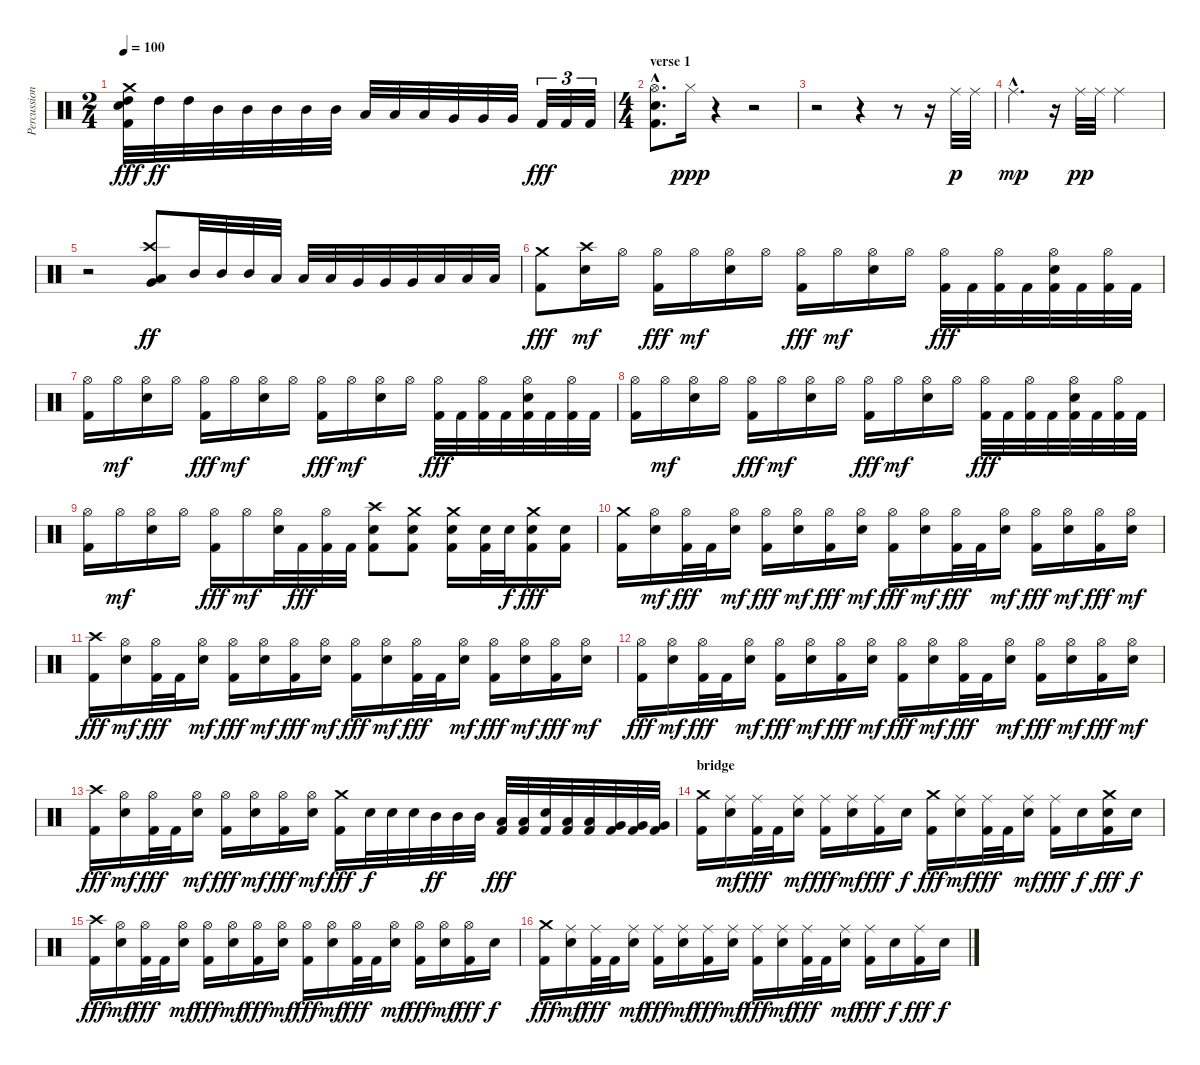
\track ("Percussion" "Percussion") {instrument percussion}
\staff {score}
\articulation defaults
\ts (2 4)
\section ("" "")
\tempo 100
\clef neutral
\ks c
("Crash medium (hit)" "High Tom (hit)" "Snare (hit) 2" "Kick (hit) 2").32{dy fff} "High Tom (hit)".32{dy ff} "High Tom (hit)".32 "Mid Tom (hit)".32 "Mid Tom (hit)".32 "Mid Tom (hit)".32 "Mid Tom (hit)".32 "Mid Tom (hit)".32 "Low Tom (hit)".32 "Low Tom (hit)".32 "Low Tom (hit)".32 "Very Low Tom (hit)".32 "Very Low Tom (hit)".32 "Very Low Tom (hit)".32 "Kick (hit) 2".32{tu (3 2) dy fff} "Kick (hit) 2".32{tu (3 2)} "Kick (hit) 2".32{tu (3 2)} |
\ts (4 4)
\section ("" "verse 1")
("Hi-Hat (open)"{hac} "Snare (hit) 2"{hac} "Kick (hit) 2"{hac}).8{d} "Hi-Hat (closed)".16{dy ppp} r.4 r.2 |
r.2 r.4 r.8 r.16 "Ride (middle)".32{dy p} "Ride (middle)".32 |
"Ride (middle)"{hac}.4{d dy mp} r.16 "Ride (middle)".32{dy pp} "Ride (middle)".32 "Ride (middle)".2 |
r.2 ("Crash high (hit)" "Very Low Tom (hit)" "Low Floor Tom (hit)").8{dy ff} "Mid Tom (hit)".32 "Mid Tom (hit)".32 "Mid Tom (hit)".32 "Low Tom (hit)".32 "Low Tom (hit)".32 "Low Tom (hit)".32 "Very Low Tom (hit)".32 "Very Low Tom (hit)".32 "Very Low Tom (hit)".32 "Low Floor Tom (hit)".32 "Low Floor Tom (hit)".32 "Low Floor Tom (hit)".32 |
\section ("" "")
("Crash medium (hit)" "Kick (hit) 2").8{dy fff} ("Crash high (hit)" "Snare (hit) 2").16{dy mf} "Hi-Hat (open)".16 ("Hi-Hat (open)" "Kick (hit) 2").16{dy fff} "Hi-Hat (open)".16{dy mf} ("Hi-Hat (open)" "Snare (hit) 2").16 "Hi-Hat (open)".16 ("Hi-Hat (open)" "Kick (hit) 2").16{dy fff} "Hi-Hat (open)".16{dy mf} ("Hi-Hat (open)" "Snare (hit) 2").16 "Hi-Hat (open)".16 ("Hi-Hat (open)" "Kick (hit) 2").32{dy fff} "Kick (hit) 2".32 ("Hi-Hat (open)" "Kick (hit) 2").32 "Kick (hit) 2".32 ("Hi-Hat (open)" "Snare (hit) 2" "Kick (hit) 2").32 "Kick (hit) 2".32 ("Hi-Hat (open)" "Kick (hit) 2").32 "Kick (hit) 2".32 |
("Hi-Hat (open)" "Kick (hit) 2").16 "Hi-Hat (open)".16{dy mf} ("Hi-Hat (open)" "Snare (hit) 2").16 "Hi-Hat (open)".16 ("Hi-Hat (open)" "Kick (hit) 2").16{dy fff} "Hi-Hat (open)".16{dy mf} ("Hi-Hat (open)" "Snare (hit) 2").16 "Hi-Hat (open)".16 ("Hi-Hat (open)" "Kick (hit) 2").16{dy fff} "Hi-Hat (open)".16{dy mf} ("Hi-Hat (open)" "Snare (hit) 2").16 "Hi-Hat (open)".16 ("Hi-Hat (open)" "Kick (hit) 2").32{dy fff} "Kick (hit) 2".32 ("Hi-Hat (open)" "Kick (hit) 2").32 "Kick (hit) 2".32 ("Hi-Hat (open)" "Snare (hit) 2" "Kick (hit) 2").32 "Kick (hit) 2".32 ("Hi-Hat (open)" "Kick (hit) 2").32 "Kick (hit) 2".32 |
("Hi-Hat (open)" "Kick (hit) 2").16 "Hi-Hat (open)".16{dy mf} ("Hi-Hat (open)" "Snare (hit) 2").16 "Hi-Hat (open)".16 ("Hi-Hat (open)" "Kick (hit) 2").16{dy fff} "Hi-Hat (open)".16{dy mf} ("Hi-Hat (open)" "Snare (hit) 2").16 "Hi-Hat (open)".16 ("Hi-Hat (open)" "Kick (hit) 2").16{dy fff} "Hi-Hat (open)".16{dy mf} ("Hi-Hat (open)" "Snare (hit) 2").16 "Hi-Hat (open)".16 ("Hi-Hat (open)" "Kick (hit) 2").32{dy fff} "Kick (hit) 2".32 ("Hi-Hat (open)" "Kick (hit) 2").32 "Kick (hit) 2".32 ("Hi-Hat (open)" "Snare (hit) 2" "Kick (hit) 2").32 "Kick (hit) 2".32 ("Hi-Hat (open)" "Kick (hit) 2").32 "Kick (hit) 2".32 |
("Hi-Hat (open)" "Kick (hit) 2").16 "Hi-Hat (open)".16{dy mf} ("Hi-Hat (open)" "Snare (hit) 2").16 "Hi-Hat (open)".16 ("Hi-Hat (open)" "Kick (hit) 2").16{dy fff} "Hi-Hat (open)".16{dy mf} ("Hi-Hat (open)" "Snare (hit) 2").32 "Kick (hit) 2".32{dy fff} ("Hi-Hat (open)" "Kick (hit) 2").32 "Kick (hit) 2".32 ("Crash high (hit)" "Snare (hit) 2" "Kick (hit) 2").8 ("Crash medium (hit)" "Snare (hit) 2" "Kick (hit) 2").8 ("Crash medium (hit)" "Snare (hit) 2" "Kick (hit) 2").16 ("Snare (hit) 2" "Kick (hit) 2").32 "Snare (hit) 2".32{dy f} ("Crash medium (hit)" "Snare (hit) 2" "Kick (hit) 2").16{dy fff} ("Snare (hit) 2" "Kick (hit) 2").16 |
\section ("" "")
("Crash medium (hit)" "Kick (hit) 2").16 ("Hi-Hat (open)" "Snare (hit) 2").16{dy mf} ("Hi-Hat (open)" "Kick (hit) 2").32{dy fff} "Kick (hit) 2".32 ("Hi-Hat (open)" "Snare (hit) 2").16{dy mf} ("Hi-Hat (open)" "Kick (hit) 2").16{dy fff} ("Hi-Hat (open)" "Snare (hit) 2").16{dy mf} ("Hi-Hat (open)" "Kick (hit) 2").16{dy fff} ("Hi-Hat (open)" "Snare (hit) 2").16{dy mf} ("Hi-Hat (open)" "Kick (hit) 2").16{dy fff} ("Hi-Hat (open)" "Snare (hit) 2").16{dy mf} ("Hi-Hat (open)" "Kick (hit) 2").32{dy fff} "Kick (hit) 2".32 ("Hi-Hat (open)" "Snare (hit) 2").16{dy mf} ("Hi-Hat (open)" "Kick (hit) 2").16{dy fff} ("Hi-Hat (open)" "Snare (hit) 2").16{dy mf} ("Hi-Hat (open)" "Kick (hit) 2").16{dy fff} ("Hi-Hat (open)" "Snare (hit) 2").16{dy mf} |
("Crash high (hit)" "Kick (hit) 2").16{dy fff} ("Hi-Hat (open)" "Snare (hit) 2").16{dy mf} ("Hi-Hat (open)" "Kick (hit) 2").32{dy fff} "Kick (hit) 2".32 ("Hi-Hat (open)" "Snare (hit) 2").16{dy mf} ("Hi-Hat (open)" "Kick (hit) 2").16{dy fff} ("Hi-Hat (open)" "Snare (hit) 2").16{dy mf} ("Hi-Hat (open)" "Kick (hit) 2").16{dy fff} ("Hi-Hat (open)" "Snare (hit) 2").16{dy mf} ("Hi-Hat (open)" "Kick (hit) 2").16{dy fff} ("Hi-Hat (open)" "Snare (hit) 2").16{dy mf} ("Hi-Hat (open)" "Kick (hit) 2").32{dy fff} "Kick (hit) 2".32 ("Hi-Hat (open)" "Snare (hit) 2").16{dy mf} ("Hi-Hat (open)" "Kick (hit) 2").16{dy fff} ("Hi-Hat (open)" "Snare (hit) 2").16{dy mf} ("Hi-Hat (open)" "Kick (hit) 2").16{dy fff} ("Hi-Hat (open)" "Snare (hit) 2").16{dy mf} |
("Hi-Hat (open)" "Kick (hit) 2").16{dy fff} ("Hi-Hat (open)" "Snare (hit) 2").16{dy mf} ("Hi-Hat (open)" "Kick (hit) 2").32{dy fff} "Kick (hit) 2".32 ("Hi-Hat (open)" "Snare (hit) 2").16{dy mf} ("Hi-Hat (open)" "Kick (hit) 2").16{dy fff} ("Hi-Hat (open)" "Snare (hit) 2").16{dy mf} ("Hi-Hat (open)" "Kick (hit) 2").16{dy fff} ("Hi-Hat (open)" "Snare (hit) 2").16{dy mf} ("Hi-Hat (open)" "Kick (hit) 2").16{dy fff} ("Hi-Hat (open)" "Snare (hit) 2").16{dy mf} ("Hi-Hat (open)" "Kick (hit) 2").32{dy fff} "Kick (hit) 2".32 ("Hi-Hat (open)" "Snare (hit) 2").16{dy mf} ("Hi-Hat (open)" "Kick (hit) 2").16{dy fff} ("Hi-Hat (open)" "Snare (hit) 2").16{dy mf} ("Hi-Hat (open)" "Kick (hit) 2").16{dy fff} ("Hi-Hat (open)" "Snare (hit) 2").16{dy mf} |
("Crash high (hit)" "Kick (hit) 2").16{dy fff} ("Hi-Hat (open)" "Snare (hit) 2").16{dy mf} ("Hi-Hat (open)" "Kick (hit) 2").32{dy fff} "Kick (hit) 2".32 ("Hi-Hat (open)" "Snare (hit) 2").16{dy mf} ("Hi-Hat (open)" "Kick (hit) 2").16{dy fff} ("Hi-Hat (open)" "Snare (hit) 2").16{dy mf} ("Hi-Hat (open)" "Kick (hit) 2").16{dy fff} ("Hi-Hat (open)" "Snare (hit) 2").16{dy mf} ("Crash medium (hit)" "Kick (hit) 2").16{dy fff} "Snare (hit) 2".32{dy f} "Snare (hit) 2".32 "Snare (hit) 2".32 "Mid Tom (hit)".32{dy ff} "Mid Tom (hit)".32 "Mid Tom (hit)".32 ("Low Tom (hit)" "Kick (hit) 2").32{dy fff} ("Low Tom (hit)" "Kick (hit) 2").32 ("Snare (hit) 2" "Kick (hit) 2").32 ("Low Tom (hit)" "Kick (hit) 2").32 ("Low Tom (hit)" "Kick (hit) 2").32 ("Very Low Tom (hit)" "Kick (hit) 2").32 ("Very Low Tom (hit)" "Kick (hit) 2").32 ("Very Low Tom (hit)" "Kick (hit) 2").32 |
\section ("" "bridge")
("Crash medium (hit)" "Kick (hit) 2").16 ("Ride (middle)" "Snare (hit) 2").16{dy mf} ("Ride (middle)" "Kick (hit) 2").32{dy fff} "Kick (hit) 2".32 ("Ride (middle)" "Snare (hit) 2").16{dy mf} ("Ride (middle)" "Kick (hit) 2").16{dy fff} ("Ride (middle)" "Snare (hit) 2").16{dy mf} ("Ride (middle)" "Kick (hit) 2").16{dy fff} "Snare (hit) 2".16{dy f} ("Crash medium (hit)" "Kick (hit) 2").16{dy fff} ("Ride (middle)" "Snare (hit) 2").16{dy mf} ("Ride (middle)" "Kick (hit) 2").32{dy fff} "Kick (hit) 2".32 ("Ride (middle)" "Snare (hit) 2").16{dy mf} ("Ride (middle)" "Kick (hit) 2").16{dy fff} "Snare (hit) 2".16{dy f} ("Crash medium (hit)" "Snare (hit) 2" "Kick (hit) 2").16{dy fff} "Snare (hit) 2".16{dy f} |
("Crash high (hit)" "Kick (hit) 2").16{dy fff} ("Hi-Hat (open)" "Snare (hit) 2").16{dy mf} ("Hi-Hat (open)" "Kick (hit) 2").32{dy fff} "Kick (hit) 2".32 ("Hi-Hat (open)" "Snare (hit) 2").16{dy mf} ("Hi-Hat (open)" "Kick (hit) 2").16{dy fff} ("Hi-Hat (open)" "Snare (hit) 2").16{dy mf} ("Hi-Hat (open)" "Kick (hit) 2").16{dy fff} ("Hi-Hat (open)" "Snare (hit) 2").16{dy mf} ("Hi-Hat (open)" "Kick (hit) 2").16{dy fff} ("Hi-Hat (open)" "Snare (hit) 2").16{dy mf} ("Hi-Hat (open)" "Kick (hit) 2").32{dy fff} "Kick (hit) 2".32 ("Hi-Hat (open)" "Snare (hit) 2").16{dy mf} ("Hi-Hat (open)" "Kick (hit) 2").16{dy fff} ("Hi-Hat (open)" "Snare (hit) 2").16{dy mf} ("Hi-Hat (open)" "Kick (hit) 2").16{dy fff} "Snare (hit) 2".16{dy f} |
("Crash medium (hit)" "Kick (hit) 2").16{dy fff} ("Ride (middle)" "Snare (hit) 2").16{dy mf} ("Ride (middle)" "Kick (hit) 2").32{dy fff} "Kick (hit) 2".32 ("Ride (middle)" "Snare (hit) 2").16{dy mf} ("Ride (middle)" "Kick (hit) 2").16{dy fff} ("Ride (middle)" "Snare (hit) 2").16{dy mf} ("Ride (middle)" "Kick (hit) 2").16{dy fff} ("Ride (middle)" "Snare (hit) 2").16{dy mf} ("Ride (middle)" "Kick (hit) 2").16{dy fff} ("Ride (middle)" "Snare (hit) 2").16{dy mf} ("Ride (middle)" "Kick (hit) 2").32{dy fff} "Kick (hit) 2".32 ("Ride (middle)" "Snare (hit) 2").16{dy mf} ("Ride (middle)" "Kick (hit) 2").16{dy fff} "Snare (hit) 2".16{dy f} ("Ride (middle)" "Kick (hit) 2").16{dy fff} "Snare (hit) 2".16{dy f}
